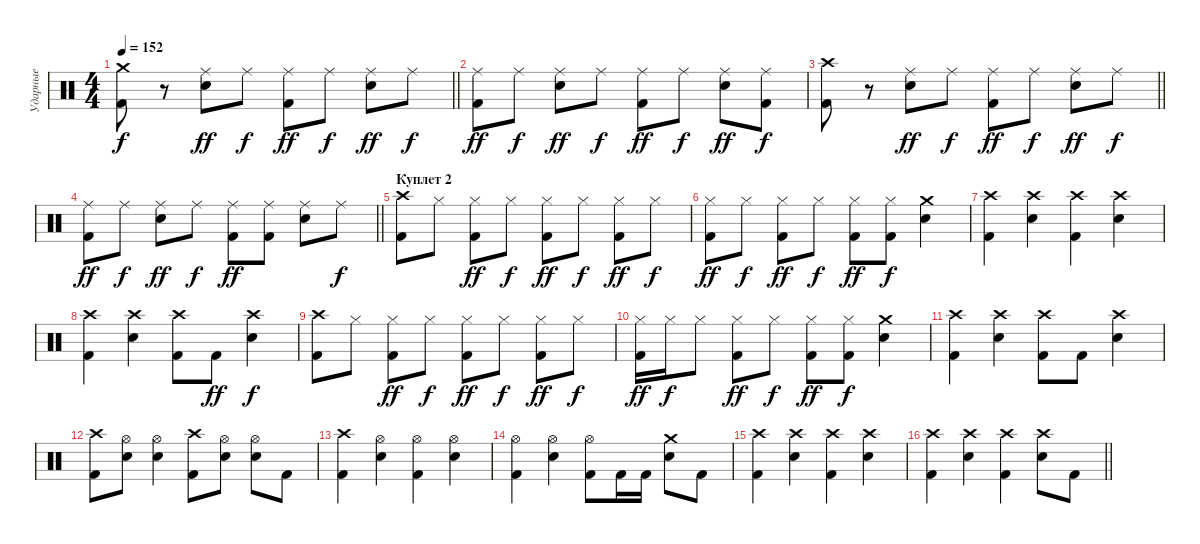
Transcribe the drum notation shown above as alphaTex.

\track ("Ударные" "Ударные") {instrument percussion}
\staff {score}
\articulation defaults
\ts (4 4)
\tempo 152
\clef neutral
\barLineRight lightlight
\ks c
("Crash medium (hit)" "Kick (hit) 2").8{dy f} r.8 ("Ride (middle)" "Snare (hit) 2").8{dy ff} "Ride (middle)".8{dy f} ("Ride (middle)" "Kick (hit) 2").8{dy ff} "Ride (middle)".8{dy f} ("Ride (middle)" "Snare (hit) 2").8{dy ff} "Ride (middle)".8{dy f} |
("Ride (middle)" "Kick (hit) 2").8{dy ff} "Ride (middle)".8{dy f} ("Ride (middle)" "Snare (hit) 2").8{dy ff} "Ride (middle)".8{dy f} ("Ride (middle)" "Kick (hit) 2").8{dy ff} "Ride (middle)".8{dy f} ("Ride (middle)" "Snare (hit) 2").8{dy ff} ("Ride (middle)" "Kick (hit) 2").8{dy f} |
\barLineRight lightlight
("Crash high (hit)" "Kick (hit) 2").8 r.8 ("Ride (middle)" "Snare (hit) 2").8{dy ff} "Ride (middle)".8{dy f} ("Ride (middle)" "Kick (hit) 2").8{dy ff} "Ride (middle)".8{dy f} ("Ride (middle)" "Snare (hit) 2").8{dy ff} "Ride (middle)".8{dy f} |
\barLineRight lightlight
("Ride (middle)" "Kick (hit) 2").8{dy ff} "Ride (middle)".8{dy f} ("Ride (middle)" "Snare (hit) 2").8{dy ff} "Ride (middle)".8{dy f} ("Ride (middle)" "Kick (hit) 2").8{dy ff} ("Ride (middle)" "Kick (hit) 2").8 ("Ride (middle)" "Snare (hit) 2").8 "Ride (middle)".8{dy f} |
\section ("" "Куплет 2")
("Crash high (hit)" "Kick (hit) 2").8 "Hi-Hat (closed)".8 ("Hi-Hat (closed)" "Kick (hit) 2").8{dy ff} "Hi-Hat (closed)".8{dy f} ("Hi-Hat (closed)" "Kick (hit) 2").8{dy ff} "Hi-Hat (closed)".8{dy f} ("Hi-Hat (closed)" "Kick (hit) 2").8{dy ff} "Hi-Hat (closed)".8{dy f} |
("Hi-Hat (closed)" "Kick (hit) 2").8{dy ff} "Hi-Hat (closed)".8{dy f} ("Hi-Hat (closed)" "Kick (hit) 2").8{dy ff} "Hi-Hat (closed)".8{dy f} ("Hi-Hat (closed)" "Kick (hit) 2").8{dy ff} ("Hi-Hat (closed)" "Kick (hit) 2").8{dy f} ("Crash medium (hit)" "Snare (hit) 2").4 |
("Crash high (hit)" "Kick (hit) 2").4 ("Crash high (hit)" "Snare (hit) 2").4 ("Crash high (hit)" "Kick (hit) 2").4 ("Crash high (hit)" "Snare (hit) 2").4 |
("Crash high (hit)" "Kick (hit) 2").4 ("Crash high (hit)" "Snare (hit) 2").4 ("Crash high (hit)" "Kick (hit) 2").8 "Kick (hit) 2".8{dy ff} ("Crash high (hit)" "Snare (hit) 2").4{dy f} |
("Crash high (hit)" "Kick (hit) 2").8 "Hi-Hat (closed)".8 ("Hi-Hat (closed)" "Kick (hit) 2").8{dy ff} "Hi-Hat (closed)".8{dy f} ("Hi-Hat (closed)" "Kick (hit) 2").8{dy ff} "Hi-Hat (closed)".8{dy f} ("Hi-Hat (closed)" "Kick (hit) 2").8{dy ff} "Hi-Hat (closed)".8{dy f} |
("Hi-Hat (closed)" "Kick (hit) 2").16{dy ff} "Hi-Hat (closed)".16{dy f} "Hi-Hat (closed)".8 ("Hi-Hat (closed)" "Kick (hit) 2").8{dy ff} "Hi-Hat (closed)".8{dy f} ("Hi-Hat (closed)" "Kick (hit) 2").8{dy ff} ("Hi-Hat (closed)" "Kick (hit) 2").8{dy f} ("Crash medium (hit)" "Snare (hit) 2").4 |
("Crash high (hit)" "Kick (hit) 2").4 ("Crash high (hit)" "Snare (hit) 2").4 ("Crash high (hit)" "Kick (hit) 2").8 "Kick (hit) 2".8 ("Crash high (hit)" "Snare (hit) 2").4 |
("Crash high (hit)" "Kick (hit) 2").8 ("Hi-Hat (open)" "Snare (hit) 2").8 ("Hi-Hat (open)" "Snare (hit) 2").4 ("Crash high (hit)" "Kick (hit) 2").8 ("Hi-Hat (open)" "Snare (hit) 2").8 ("Hi-Hat (open)" "Snare (hit) 2").8 "Kick (hit) 2".8 |
("Crash high (hit)" "Kick (hit) 2").4 ("Hi-Hat (open)" "Snare (hit) 2").4 ("Hi-Hat (open)" "Kick (hit) 2").4 ("Hi-Hat (open)" "Snare (hit) 2").4 |
("Hi-Hat (open)" "Kick (hit) 2").4 ("Hi-Hat (open)" "Snare (hit) 2").4 ("Hi-Hat (open)" "Kick (hit) 2").8 "Kick (hit) 2".16 "Kick (hit) 2".16 ("Crash medium (hit)" "Snare (hit) 2").8 "Kick (hit) 2".8 |
("Crash high (hit)" "Kick (hit) 2").4 ("Crash high (hit)" "Snare (hit) 2").4 ("Crash high (hit)" "Kick (hit) 2").4 ("Crash high (hit)" "Snare (hit) 2").4 |
\barLineRight lightlight
("Crash high (hit)" "Kick (hit) 2").4 ("Crash high (hit)" "Snare (hit) 2").4 ("Crash high (hit)" "Kick (hit) 2").4 ("Crash high (hit)" "Snare (hit) 2").8 "Kick (hit) 2".8
